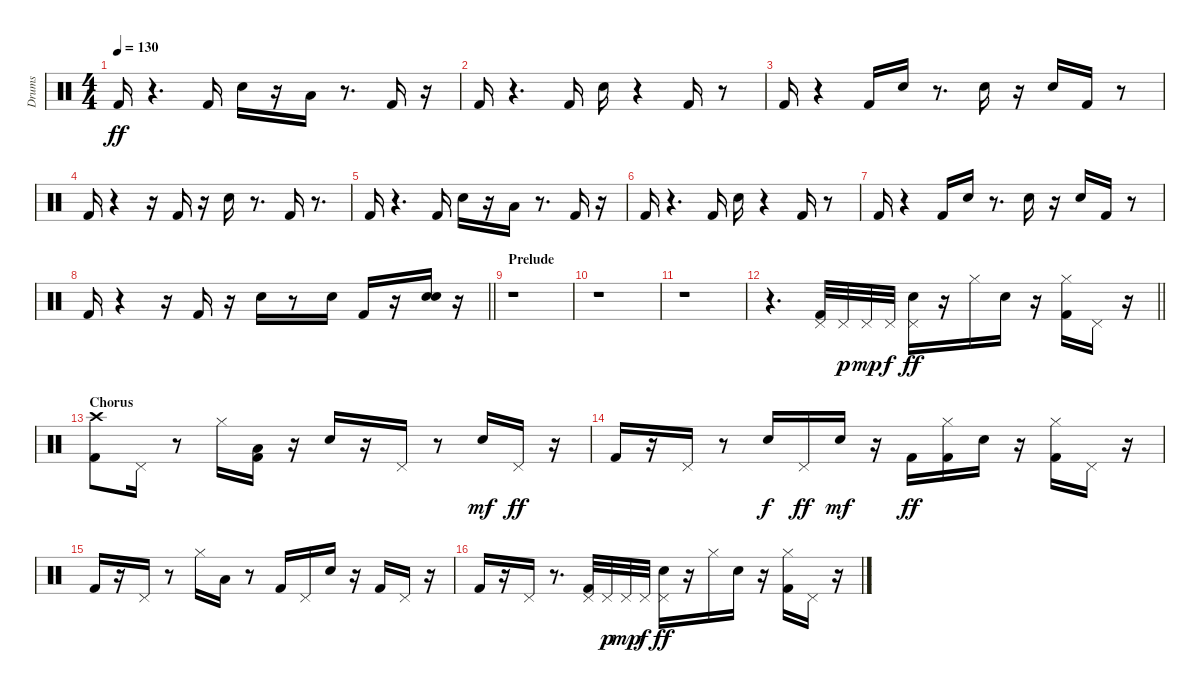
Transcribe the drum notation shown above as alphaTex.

\track ("Drums" "Drums") {instrument percussion}
\staff {score}
\articulation defaults
\ts (4 4)
\tempo 130
\clef neutral
\ks c "Kick (hit) 2".16{dy ff}
r.4{d} "Kick (hit) 2".16 "Electric Snare (hit)".16 r.16 "Low Floor Tom (hit)".16 r.8{d} "Kick (hit) 2".16 r.16 |
"Kick (hit) 2".16 r.4{d} "Kick (hit) 2".16 "Electric Snare (hit)".16 r.4 "Kick (hit) 2".16 r.8 |
"Kick (hit) 2".16 r.4 "Kick (hit) 2".16 "Electric Snare (hit)".16 r.8{d} "Electric Snare (hit)".16 r.16 "Hand Clap (hit)".16 "Kick (hit) 2".16 r.8 |
"Kick (hit) 2".16 r.4 r.16 "Kick (hit) 2".16 r.16 "Electric Snare (hit)".16 r.8{d} "Kick (hit) 2".16 r.8{d} |
"Kick (hit) 2".16 r.4{d} "Kick (hit) 2".16 "Electric Snare (hit)".16 r.16 "Low Floor Tom (hit)".16 r.8{d} "Kick (hit) 2".16 r.16 |
"Kick (hit) 2".16 r.4{d} "Kick (hit) 2".16 "Electric Snare (hit)".16 r.4 "Kick (hit) 2".16 r.8 |
"Kick (hit) 2".16 r.4 "Kick (hit) 2".16 "Electric Snare (hit)".16 r.8{d} "Electric Snare (hit)".16 r.16 "Electric Snare (hit)".16 "Kick (hit) 2".16 r.8 |
\barLineRight lightlight "Kick (hit) 2".16
r.4 r.16 "Kick (hit) 2".16 r.16 "Electric Snare (hit)".16 r.8 "Electric Snare (hit)".16 "Kick (hit) 2".16 r.16 ("Snare (hit) 2" "Electric Snare (hit)").16 r.16 |
\section ("" "Prelude")
r.1 |
r.1 |
r.1 |
\barLineRight lightlight
r.4{d} ("Kick (hit) 2" "Pedal Hi-Hat (hit)").32 "Pedal Hi-Hat (hit)".32{dy p} "Pedal Hi-Hat (hit)".32{dy mp} "Pedal Hi-Hat (hit)".32{dy f} ("Electric Snare (hit)" "Pedal Hi-Hat (hit)").16{dy ff} r.16 "Hi-Hat (closed)".16 "Electric Snare (hit)".16 r.16 ("Kick (hit) 2" "Hi-Hat (closed)").16 "Pedal Hi-Hat (hit)".16 r.16 |
\section ("" "Chorus")
("Kick (hit) 2" "Crash high (hit)").8 "Pedal Hi-Hat (hit)".16 r.8 "Hi-Hat (closed)".16 ("Kick (hit) 2" "Low Floor Tom (hit)").16 r.16 "Electric Snare (hit)".16 r.16 "Pedal Hi-Hat (hit)".16 r.8 "Snare (hit) 2".16{dy mf} "Pedal Hi-Hat (hit)".16{dy ff} r.16 |
"Kick (hit) 2".16 r.16 "Pedal Hi-Hat (hit)".16 r.8 "Snare (hit) 2".16{dy f} "Pedal Hi-Hat (hit)".16{dy ff} "Snare (hit) 2".16{dy mf} r.16 "Kick (hit) 2".16{dy ff} ("Kick (hit) 2" "Hi-Hat (closed)").16 "Electric Snare (hit)".16 r.16 ("Kick (hit) 2" "Hi-Hat (closed)").16 "Pedal Hi-Hat (hit)".16 r.16 |
"Kick (hit) 2".16 r.16 "Pedal Hi-Hat (hit)".16 r.8 "Hi-Hat (closed)".16 "Low Floor Tom (hit)".16 r.8 "Kick (hit) 2".16 "Pedal Hi-Hat (hit)".16 "Electric Snare (hit)".16 r.16 "Kick (hit) 2".16 "Pedal Hi-Hat (hit)".16 r.16 |
"Kick (hit) 2".16 r.16 "Pedal Hi-Hat (hit)".16 r.8{d} ("Kick (hit) 2" "Pedal Hi-Hat (hit)").32 "Pedal Hi-Hat (hit)".32{dy p} "Pedal Hi-Hat (hit)".32{dy mp} "Pedal Hi-Hat (hit)".32{dy f} ("Electric Snare (hit)" "Pedal Hi-Hat (hit)").16{dy ff} r.16 "Hi-Hat (closed)".16 "Electric Snare (hit)".16 r.16 ("Kick (hit) 2" "Hi-Hat (closed)").16 "Pedal Hi-Hat (hit)".16 r.16
